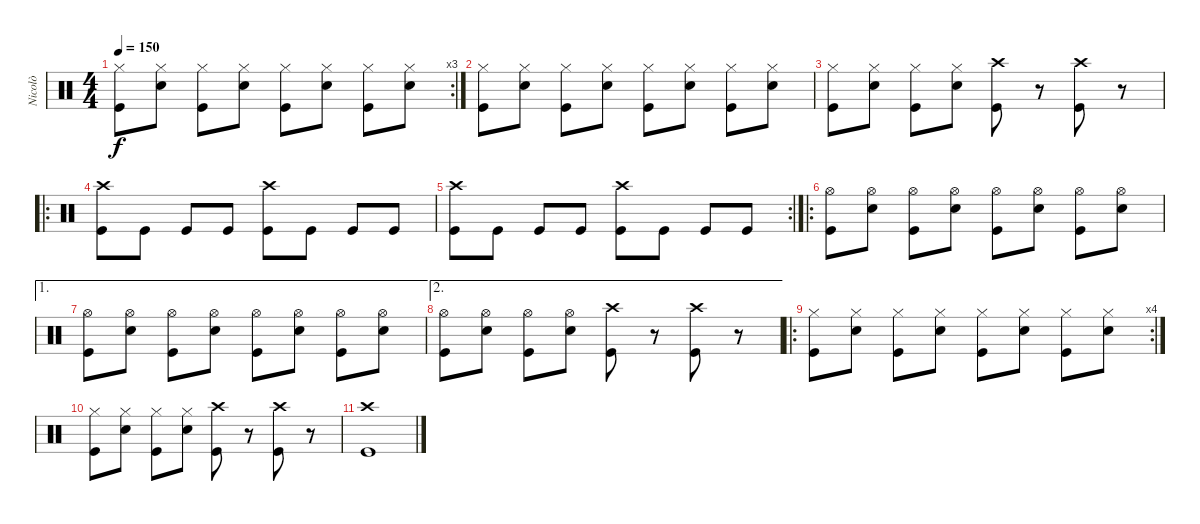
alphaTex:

\track ("Nicolò" "Nicolò") {instrument percussion}
\staff {score}
\articulation defaults
\rc 3
\ts (4 4)
\tempo 150
\clef neutral
\ks c
("Hi-Hat (closed)" "Kick (hit)").8{dy f} ("Hi-Hat (closed)" "Snare (hit) 2").8 ("Hi-Hat (closed)" "Kick (hit)").8 ("Hi-Hat (closed)" "Snare (hit) 2").8 ("Hi-Hat (closed)" "Kick (hit)").8 ("Hi-Hat (closed)" "Snare (hit) 2").8 ("Hi-Hat (closed)" "Kick (hit)").8 ("Hi-Hat (closed)" "Snare (hit) 2").8 |
("Hi-Hat (closed)" "Kick (hit)").8 ("Hi-Hat (closed)" "Snare (hit) 2").8 ("Hi-Hat (closed)" "Kick (hit)").8 ("Hi-Hat (closed)" "Snare (hit) 2").8 ("Hi-Hat (closed)" "Kick (hit)").8 ("Hi-Hat (closed)" "Snare (hit) 2").8 ("Hi-Hat (closed)" "Kick (hit)").8 ("Hi-Hat (closed)" "Snare (hit) 2").8 |
("Hi-Hat (closed)" "Kick (hit)").8 ("Hi-Hat (closed)" "Snare (hit) 2").8 ("Hi-Hat (closed)" "Kick (hit)").8 ("Hi-Hat (closed)" "Snare (hit) 2").8 ("Crash high (hit)" "Kick (hit)").8 r.8 ("Crash high (hit)" "Kick (hit)").8 r.8 |
\ro
("Crash high (hit)" "Kick (hit)").8 "Kick (hit)".8 "Kick (hit)".8 "Kick (hit)".8 ("Crash high (hit)" "Kick (hit)").8 "Kick (hit)".8 "Kick (hit)".8 "Kick (hit)".8 |
\rc 2
("Crash high (hit)" "Kick (hit)").8 "Kick (hit)".8 "Kick (hit)".8 "Kick (hit)".8 ("Crash high (hit)" "Kick (hit)").8 "Kick (hit)".8 "Kick (hit)".8 "Kick (hit)".8 |
\ro
("Hi-Hat (open)" "Kick (hit)").8 ("Hi-Hat (open)" "Snare (hit) 2").8 ("Hi-Hat (open)" "Kick (hit)").8 ("Hi-Hat (open)" "Snare (hit) 2").8 ("Hi-Hat (open)" "Kick (hit)").8 ("Hi-Hat (open)" "Snare (hit) 2").8 ("Hi-Hat (open)" "Kick (hit)").8 ("Hi-Hat (open)" "Snare (hit) 2").8 |
\ae 1
("Hi-Hat (open)" "Kick (hit)").8 ("Hi-Hat (open)" "Snare (hit) 2").8 ("Hi-Hat (open)" "Kick (hit)").8 ("Hi-Hat (open)" "Snare (hit) 2").8 ("Hi-Hat (open)" "Kick (hit)").8 ("Hi-Hat (open)" "Snare (hit) 2").8 ("Hi-Hat (open)" "Kick (hit)").8 ("Hi-Hat (open)" "Snare (hit) 2").8 |
\ae 2
("Hi-Hat (open)" "Kick (hit)").8 ("Hi-Hat (open)" "Snare (hit) 2").8 ("Hi-Hat (open)" "Kick (hit)").8 ("Hi-Hat (open)" "Snare (hit) 2").8 ("Crash high (hit)" "Kick (hit)").8 r.8 ("Crash high (hit)" "Kick (hit)").8 r.8 |
\ro
\rc 4
("Hi-Hat (closed)" "Kick (hit)").8 ("Hi-Hat (closed)" "Snare (hit) 2").8 ("Hi-Hat (closed)" "Kick (hit)").8 ("Hi-Hat (closed)" "Snare (hit) 2").8 ("Hi-Hat (closed)" "Kick (hit)").8 ("Hi-Hat (closed)" "Snare (hit) 2").8 ("Hi-Hat (closed)" "Kick (hit)").8 ("Hi-Hat (closed)" "Snare (hit) 2").8 |
("Hi-Hat (closed)" "Kick (hit)").8 ("Hi-Hat (closed)" "Snare (hit) 2").8 ("Hi-Hat (closed)" "Kick (hit)").8 ("Hi-Hat (closed)" "Snare (hit) 2").8 ("Crash high (hit)" "Kick (hit)").8 r.8 ("Crash high (hit)" "Kick (hit)").8 r.8 |
("Crash high (hit)" "Kick (hit)").1
